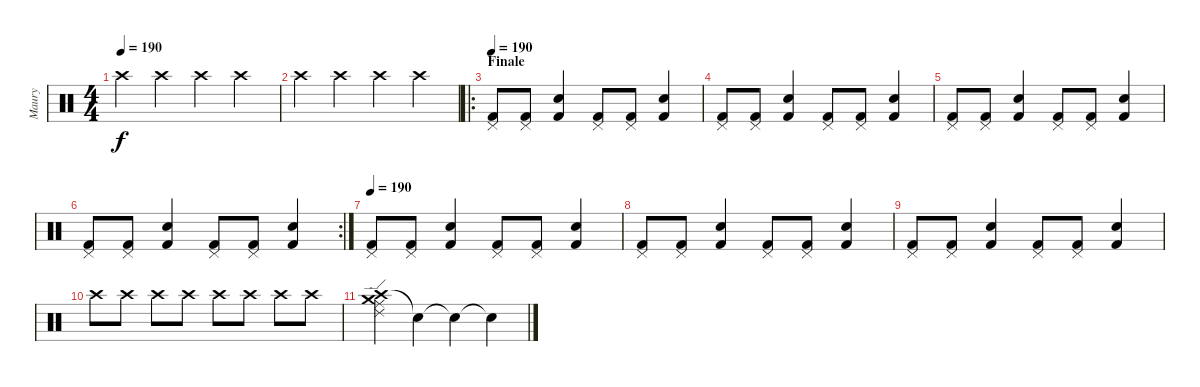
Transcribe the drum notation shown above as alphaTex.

\track ("Maury" "Maury") {instrument percussion}
\staff {score}
\articulation defaults
\ts (4 4)
\tempo 190
\clef neutral
\ks c "Crash high (hit)".4{dy f} "Crash high (hit)".4 "Crash high (hit)".4 "Crash high (hit)".4
|
"Crash high (hit)".4 "Crash high (hit)".4 "Crash high (hit)".4 "Crash high (hit)".4 |
\ro
\section ("" "Finale")
\tempo 190
("Pedal Hi-Hat (hit)" "Kick (hit) 2").8 ("Pedal Hi-Hat (hit)" "Kick (hit) 2").8 ("Snare (hit) 2" "Kick (hit) 2").4 ("Pedal Hi-Hat (hit)" "Kick (hit) 2").8 ("Pedal Hi-Hat (hit)" "Kick (hit) 2").8 ("Snare (hit) 2" "Kick (hit) 2").4 |
("Pedal Hi-Hat (hit)" "Kick (hit) 2").8 ("Pedal Hi-Hat (hit)" "Kick (hit) 2").8 ("Snare (hit) 2" "Kick (hit) 2").4 ("Pedal Hi-Hat (hit)" "Kick (hit) 2").8 ("Pedal Hi-Hat (hit)" "Kick (hit) 2").8 ("Snare (hit) 2" "Kick (hit) 2").4 |
("Pedal Hi-Hat (hit)" "Kick (hit) 2").8 ("Pedal Hi-Hat (hit)" "Kick (hit) 2").8 ("Snare (hit) 2" "Kick (hit) 2").4 ("Pedal Hi-Hat (hit)" "Kick (hit) 2").8 ("Pedal Hi-Hat (hit)" "Kick (hit) 2").8 ("Snare (hit) 2" "Kick (hit) 2").4 |
\rc 2
("Pedal Hi-Hat (hit)" "Kick (hit) 2").8 ("Pedal Hi-Hat (hit)" "Kick (hit) 2").8 ("Snare (hit) 2" "Kick (hit) 2").4 ("Pedal Hi-Hat (hit)" "Kick (hit) 2").8 ("Pedal Hi-Hat (hit)" "Kick (hit) 2").8 ("Snare (hit) 2" "Kick (hit) 2").4 |
\tempo 190
("Pedal Hi-Hat (hit)" "Kick (hit) 2").8 ("Pedal Hi-Hat (hit)" "Kick (hit) 2").8 ("Snare (hit) 2" "Kick (hit) 2").4 ("Pedal Hi-Hat (hit)" "Kick (hit) 2").8 ("Pedal Hi-Hat (hit)" "Kick (hit) 2").8 ("Snare (hit) 2" "Kick (hit) 2").4 |
("Pedal Hi-Hat (hit)" "Kick (hit) 2").8 ("Pedal Hi-Hat (hit)" "Kick (hit) 2").8 ("Snare (hit) 2" "Kick (hit) 2").4 ("Pedal Hi-Hat (hit)" "Kick (hit) 2").8 ("Pedal Hi-Hat (hit)" "Kick (hit) 2").8 ("Snare (hit) 2" "Kick (hit) 2").4 |
("Pedal Hi-Hat (hit)" "Kick (hit) 2").8 ("Pedal Hi-Hat (hit)" "Kick (hit) 2").8 ("Snare (hit) 2" "Kick (hit) 2").4 ("Pedal Hi-Hat (hit)" "Kick (hit) 2").8 ("Pedal Hi-Hat (hit)" "Kick (hit) 2").8 ("Snare (hit) 2" "Kick (hit) 2").4 |
"Crash high (hit)".8 "Crash high (hit)".8 "Crash high (hit)".8 "Crash high (hit)".8 "Crash high (hit)".8 "Crash high (hit)".8 "Crash high (hit)".8 "Crash high (hit)".8 |
("Crash high (hit)" "Crash medium (hit)" "Ride (middle)" "Ride (edge) 2").4 "Snare (hit)"{t}.4 "Snare (hit)"{t}.4 "Snare (hit)"{t}.4
